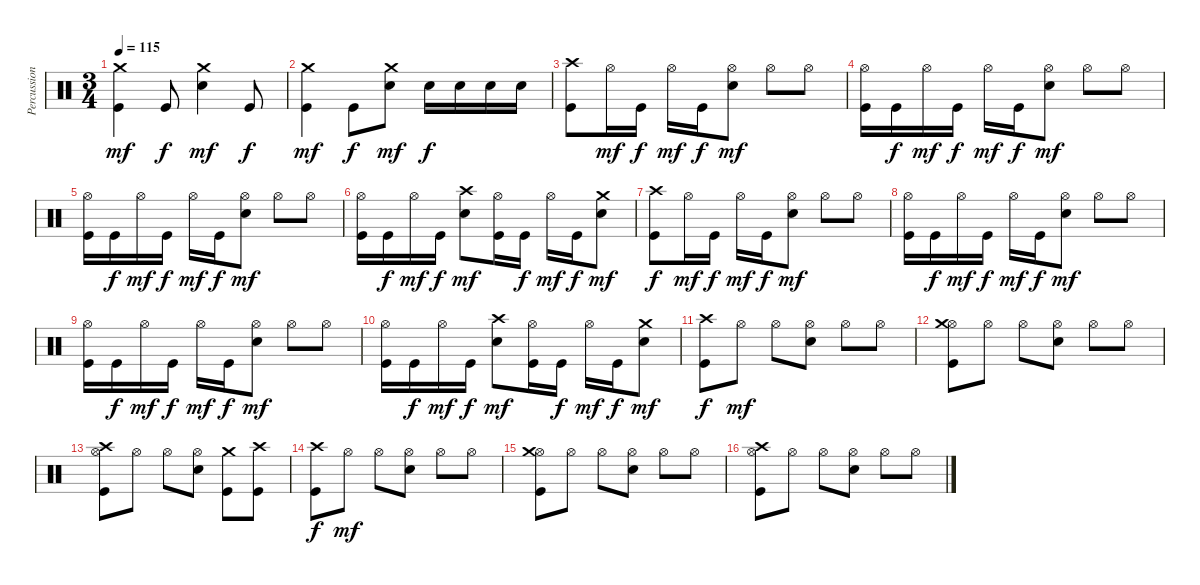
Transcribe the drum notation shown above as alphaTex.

\track ("Percussions" "Percussion") {instrument percussion}
\staff {score}
\articulation defaults
\ts (3 4)
\tempo 115
\clef neutral
\ks c
("Kick (hit)" "Crash medium (hit)").4{dy mf} "Kick (hit)".8{dy f} ("Electric Snare (hit)" "Crash medium (hit)").4{dy mf} "Kick (hit)".8{dy f} |
("Kick (hit)" "Crash medium (hit)").4{dy mf} "Kick (hit)".8{dy f} ("Electric Snare (hit)" "Crash medium (hit)").8{dy mf} "Electric Snare (hit)".16{dy f} "Electric Snare (hit)".16 "Electric Snare (hit)".16 "Electric Snare (hit)".16 |
("Kick (hit)" "Crash high (hit)").8 "Hi-Hat (open)".16{dy mf} "Kick (hit)".16{dy f} "Hi-Hat (open)".16{dy mf} "Kick (hit)".16{dy f} ("Electric Snare (hit)" "Hi-Hat (open)").8{dy mf} "Hi-Hat (open)".8 "Hi-Hat (open)".8 |
("Kick (hit)" "Hi-Hat (open)").16 "Kick (hit)".16{dy f} "Hi-Hat (open)".16{dy mf} "Kick (hit)".16{dy f} "Hi-Hat (open)".16{dy mf} "Kick (hit)".16{dy f} ("Electric Snare (hit)" "Hi-Hat (open)").8{dy mf} "Hi-Hat (open)".8 "Hi-Hat (open)".8 |
("Kick (hit)" "Hi-Hat (open)").16 "Kick (hit)".16{dy f} "Hi-Hat (open)".16{dy mf} "Kick (hit)".16{dy f} "Hi-Hat (open)".16{dy mf} "Kick (hit)".16{dy f} ("Electric Snare (hit)" "Hi-Hat (open)").8{dy mf} "Hi-Hat (open)".8 "Hi-Hat (open)".8 |
("Kick (hit)" "Hi-Hat (open)").16 "Kick (hit)".16{dy f} "Hi-Hat (open)".16{dy mf} "Kick (hit)".16{dy f} ("Electric Snare (hit)" "Crash high (hit)").8{dy mf} ("Kick (hit)" "Hi-Hat (open)").16 "Kick (hit)".16{dy f} "Hi-Hat (open)".16{dy mf} "Kick (hit)".16{dy f} ("Electric Snare (hit)" "Crash medium (hit)").8{dy mf} |
("Kick (hit)" "Crash high (hit)").8{dy f} "Hi-Hat (open)".16{dy mf} "Kick (hit)".16{dy f} "Hi-Hat (open)".16{dy mf} "Kick (hit)".16{dy f} ("Electric Snare (hit)" "Hi-Hat (open)").8{dy mf} "Hi-Hat (open)".8 "Hi-Hat (open)".8 |
("Kick (hit)" "Hi-Hat (open)").16 "Kick (hit)".16{dy f} "Hi-Hat (open)".16{dy mf} "Kick (hit)".16{dy f} "Hi-Hat (open)".16{dy mf} "Kick (hit)".16{dy f} ("Electric Snare (hit)" "Hi-Hat (open)").8{dy mf} "Hi-Hat (open)".8 "Hi-Hat (open)".8 |
("Kick (hit)" "Hi-Hat (open)").16 "Kick (hit)".16{dy f} "Hi-Hat (open)".16{dy mf} "Kick (hit)".16{dy f} "Hi-Hat (open)".16{dy mf} "Kick (hit)".16{dy f} ("Electric Snare (hit)" "Hi-Hat (open)").8{dy mf} "Hi-Hat (open)".8 "Hi-Hat (open)".8 |
("Kick (hit)" "Hi-Hat (open)").16 "Kick (hit)".16{dy f} "Hi-Hat (open)".16{dy mf} "Kick (hit)".16{dy f} ("Electric Snare (hit)" "Crash high (hit)").8{dy mf} ("Kick (hit)" "Hi-Hat (open)").16 "Kick (hit)".16{dy f} "Hi-Hat (open)".16{dy mf} "Kick (hit)".16{dy f} ("Electric Snare (hit)" "Crash medium (hit)").8{dy mf} |
("Kick (hit)" "Crash high (hit)").8{dy f} "Hi-Hat (open)".8{dy mf} "Hi-Hat (open)".8 ("Electric Snare (hit)" "Hi-Hat (open)").8 "Hi-Hat (open)".8 "Hi-Hat (open)".8 |
("Kick (hit)" "Hi-Hat (open)" "Crash medium (hit)").8 "Hi-Hat (open)".8 "Hi-Hat (open)".8 ("Electric Snare (hit)" "Hi-Hat (open)").8 "Hi-Hat (open)".8 "Hi-Hat (open)".8 |
("Kick (hit)" "Hi-Hat (open)" "Crash high (hit)").8 "Hi-Hat (open)".8 "Hi-Hat (open)".8 ("Electric Snare (hit)" "Hi-Hat (open)").8 ("Kick (hit)" "Crash medium (hit)").8 ("Kick (hit)" "Crash high (hit)").8 |
("Kick (hit)" "Crash high (hit)").8{dy f} "Hi-Hat (open)".8{dy mf} "Hi-Hat (open)".8 ("Electric Snare (hit)" "Hi-Hat (open)").8 "Hi-Hat (open)".8 "Hi-Hat (open)".8 |
("Kick (hit)" "Hi-Hat (open)" "Crash medium (hit)").8 "Hi-Hat (open)".8 "Hi-Hat (open)".8 ("Electric Snare (hit)" "Hi-Hat (open)").8 "Hi-Hat (open)".8 "Hi-Hat (open)".8 |
("Kick (hit)" "Hi-Hat (open)" "Crash high (hit)").8 "Hi-Hat (open)".8 "Hi-Hat (open)".8 ("Electric Snare (hit)" "Hi-Hat (open)").8 "Hi-Hat (open)".8 "Hi-Hat (open)".8
